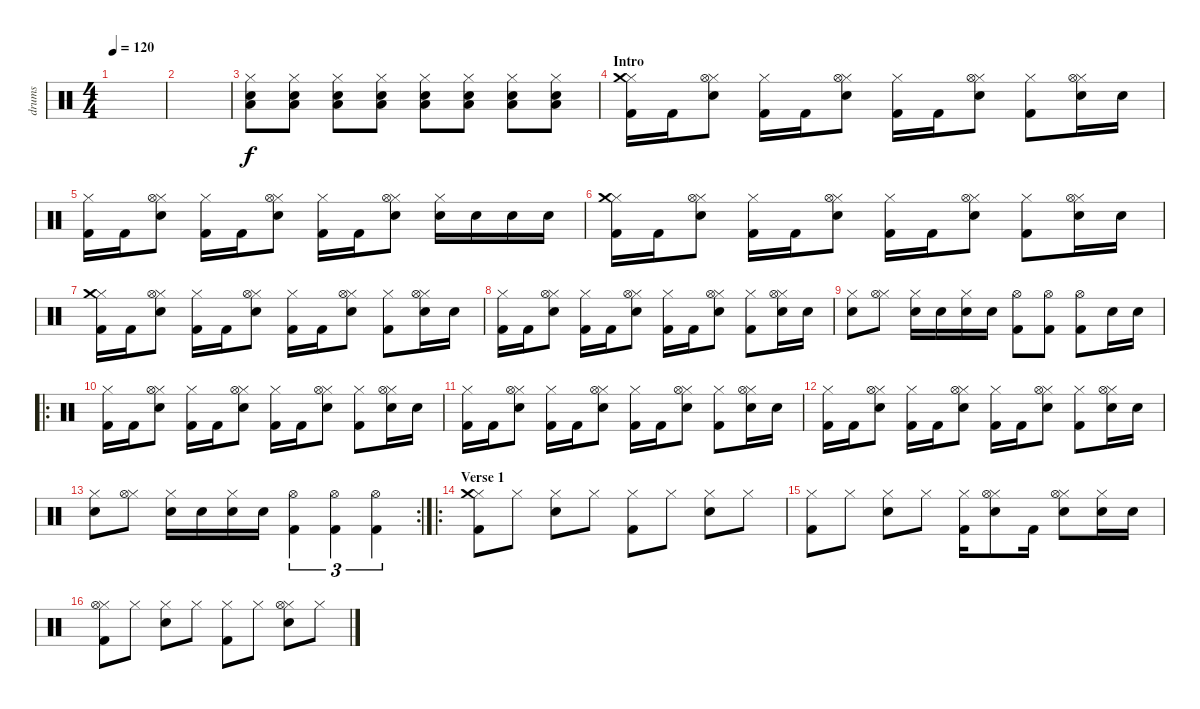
\track ("drums" "drums") {instrument percussion}
\staff {score}
\articulation defaults
\ts (4 4)
\tempo 120
\clef neutral
\ks c
|
|
("Low Floor Tom (hit)" "Electric Snare (hit)" "Hi-Hat (closed)").8{volume 13} ("Low Floor Tom (hit)" "Electric Snare (hit)" "Hi-Hat (closed)").8 ("Low Floor Tom (hit)" "Electric Snare (hit)" "Hi-Hat (closed)").8 ("Low Floor Tom (hit)" "Electric Snare (hit)" "Hi-Hat (closed)").8 ("Low Floor Tom (hit)" "Electric Snare (hit)" "Hi-Hat (closed)").8 ("Low Floor Tom (hit)" "Electric Snare (hit)" "Hi-Hat (closed)").8 ("Low Floor Tom (hit)" "Electric Snare (hit)" "Hi-Hat (closed)").8 ("Low Floor Tom (hit)" "Electric Snare (hit)" "Hi-Hat (closed)").8 |
\section ("" "Intro")
("Hi-Hat (closed)" "Kick (hit) 2" "Crash medium (hit)").16 "Kick (hit) 2".16 ("Hi-Hat (closed)" "Electric Snare (hit)" "Hi-Hat (open)").8 ("Hi-Hat (closed)" "Kick (hit) 2").16 "Kick (hit) 2".16 ("Hi-Hat (closed)" "Electric Snare (hit)" "Hi-Hat (open)").8 ("Hi-Hat (closed)" "Kick (hit) 2").16 "Kick (hit) 2".16 ("Hi-Hat (closed)" "Electric Snare (hit)" "Hi-Hat (open)").8 ("Hi-Hat (closed)" "Kick (hit) 2").8 ("Hi-Hat (closed)" "Electric Snare (hit)" "Hi-Hat (open)").16 "Electric Snare (hit)".16 |
("Hi-Hat (closed)" "Kick (hit) 2").16 "Kick (hit) 2".16 ("Hi-Hat (closed)" "Electric Snare (hit)" "Hi-Hat (open)").8 ("Hi-Hat (closed)" "Kick (hit) 2").16 "Kick (hit) 2".16 ("Hi-Hat (closed)" "Electric Snare (hit)" "Hi-Hat (open)").8 ("Hi-Hat (closed)" "Kick (hit) 2").16 "Kick (hit) 2".16 ("Hi-Hat (closed)" "Electric Snare (hit)" "Hi-Hat (open)").8 ("Hi-Hat (closed)" "Electric Snare (hit)").16 "Electric Snare (hit)".16 "Electric Snare (hit)".16 "Electric Snare (hit)".16 |
("Hi-Hat (closed)" "Kick (hit) 2" "Crash medium (hit)").16 "Kick (hit) 2".16 ("Hi-Hat (closed)" "Electric Snare (hit)" "Hi-Hat (open)").8 ("Hi-Hat (closed)" "Kick (hit) 2").16 "Kick (hit) 2".16 ("Hi-Hat (closed)" "Electric Snare (hit)" "Hi-Hat (open)").8 ("Hi-Hat (closed)" "Kick (hit) 2").16 "Kick (hit) 2".16 ("Hi-Hat (closed)" "Electric Snare (hit)" "Hi-Hat (open)").8 ("Hi-Hat (closed)" "Kick (hit) 2").8 ("Hi-Hat (closed)" "Electric Snare (hit)" "Hi-Hat (open)").16 "Electric Snare (hit)".16 |
("Hi-Hat (closed)" "Kick (hit) 2" "Crash medium (hit)").16 "Kick (hit) 2".16 ("Hi-Hat (closed)" "Electric Snare (hit)" "Hi-Hat (open)").8 ("Hi-Hat (closed)" "Kick (hit) 2").16 "Kick (hit) 2".16 ("Hi-Hat (closed)" "Electric Snare (hit)" "Hi-Hat (open)").8 ("Hi-Hat (closed)" "Kick (hit) 2").16 "Kick (hit) 2".16 ("Hi-Hat (closed)" "Electric Snare (hit)" "Hi-Hat (open)").8 ("Hi-Hat (closed)" "Kick (hit) 2").8 ("Hi-Hat (closed)" "Electric Snare (hit)" "Hi-Hat (open)").16 "Electric Snare (hit)".16 |
("Hi-Hat (closed)" "Kick (hit) 2").16 "Kick (hit) 2".16 ("Hi-Hat (closed)" "Electric Snare (hit)" "Hi-Hat (open)").8 ("Hi-Hat (closed)" "Kick (hit) 2").16 "Kick (hit) 2".16 ("Hi-Hat (closed)" "Electric Snare (hit)" "Hi-Hat (open)").8 ("Hi-Hat (closed)" "Kick (hit) 2").16 "Kick (hit) 2".16 ("Hi-Hat (closed)" "Electric Snare (hit)" "Hi-Hat (open)").8 ("Hi-Hat (closed)" "Kick (hit) 2").8 ("Hi-Hat (closed)" "Electric Snare (hit)" "Hi-Hat (open)").16 "Electric Snare (hit)".16 |
("Hi-Hat (closed)" "Electric Snare (hit)").8 ("Hi-Hat (closed)" "Hi-Hat (open)").8 ("Hi-Hat (closed)" "Electric Snare (hit)").16 "Electric Snare (hit)".16 ("Hi-Hat (closed)" "Electric Snare (hit)").16 "Electric Snare (hit)".16 ("Hi-Hat (open)" "Kick (hit) 2").8 ("Hi-Hat (open)" "Kick (hit) 2").8 ("Hi-Hat (open)" "Kick (hit) 2").8 "Electric Snare (hit)".16 "Electric Snare (hit)".16 |
\ro
("Hi-Hat (closed)" "Kick (hit) 2").16 "Kick (hit) 2".16 ("Hi-Hat (closed)" "Electric Snare (hit)" "Hi-Hat (open)").8 ("Hi-Hat (closed)" "Kick (hit) 2").16 "Kick (hit) 2".16 ("Hi-Hat (closed)" "Electric Snare (hit)" "Hi-Hat (open)").8 ("Hi-Hat (closed)" "Kick (hit) 2").16 "Kick (hit) 2".16 ("Hi-Hat (closed)" "Electric Snare (hit)" "Hi-Hat (open)").8 ("Hi-Hat (closed)" "Kick (hit) 2").8 ("Hi-Hat (closed)" "Electric Snare (hit)" "Hi-Hat (open)").16 "Electric Snare (hit)".16 |
("Hi-Hat (closed)" "Kick (hit) 2").16 "Kick (hit) 2".16 ("Hi-Hat (closed)" "Electric Snare (hit)" "Hi-Hat (open)").8 ("Hi-Hat (closed)" "Kick (hit) 2").16 "Kick (hit) 2".16 ("Hi-Hat (closed)" "Electric Snare (hit)" "Hi-Hat (open)").8 ("Hi-Hat (closed)" "Kick (hit) 2").16 "Kick (hit) 2".16 ("Hi-Hat (closed)" "Electric Snare (hit)" "Hi-Hat (open)").8 ("Hi-Hat (closed)" "Kick (hit) 2").8 ("Hi-Hat (closed)" "Electric Snare (hit)" "Hi-Hat (open)").16 "Electric Snare (hit)".16 |
("Hi-Hat (closed)" "Kick (hit) 2").16 "Kick (hit) 2".16 ("Hi-Hat (closed)" "Electric Snare (hit)" "Hi-Hat (open)").8 ("Hi-Hat (closed)" "Kick (hit) 2").16 "Kick (hit) 2".16 ("Hi-Hat (closed)" "Electric Snare (hit)" "Hi-Hat (open)").8 ("Hi-Hat (closed)" "Kick (hit) 2").16 "Kick (hit) 2".16 ("Hi-Hat (closed)" "Electric Snare (hit)" "Hi-Hat (open)").8 ("Hi-Hat (closed)" "Kick (hit) 2").8 ("Hi-Hat (closed)" "Electric Snare (hit)" "Hi-Hat (open)").16 "Electric Snare (hit)".16 |
\rc 2
("Hi-Hat (closed)" "Electric Snare (hit)").8 ("Hi-Hat (closed)" "Hi-Hat (open)").8 ("Hi-Hat (closed)" "Electric Snare (hit)").16 "Electric Snare (hit)".16 ("Hi-Hat (closed)" "Electric Snare (hit)").16 "Electric Snare (hit)".16 ("Hi-Hat (open)" "Kick (hit) 2").4{tu (3 2)} ("Hi-Hat (open)" "Kick (hit) 2").4{tu (3 2)} ("Hi-Hat (open)" "Kick (hit) 2").4{tu (3 2)} |
\ro
\section ("" "Verse 1")
("Hi-Hat (closed)" "Crash medium (hit)" "Kick (hit) 2").8 "Hi-Hat (closed)".8 ("Hi-Hat (closed)" "Electric Snare (hit)").8 "Hi-Hat (closed)".8 ("Hi-Hat (closed)" "Kick (hit) 2").8 "Hi-Hat (closed)".8 ("Hi-Hat (closed)" "Electric Snare (hit)").8 "Hi-Hat (closed)".8 |
("Hi-Hat (closed)" "Kick (hit) 2").8 "Hi-Hat (closed)".8 ("Hi-Hat (closed)" "Electric Snare (hit)").8 "Hi-Hat (closed)".8 ("Hi-Hat (closed)" "Kick (hit) 2").16 ("Hi-Hat (closed)" "Hi-Hat (open)" "Electric Snare (hit)").8 "Kick (hit) 2".16 ("Hi-Hat (closed)" "Hi-Hat (open)" "Electric Snare (hit)").8 ("Hi-Hat (closed)" "Electric Snare (hit)").16 "Electric Snare (hit)".16 |
("Hi-Hat (closed)" "Hi-Hat (open)" "Kick (hit) 2").8 "Hi-Hat (closed)".8 ("Hi-Hat (closed)" "Electric Snare (hit)").8 "Hi-Hat (closed)".8 ("Hi-Hat (closed)" "Kick (hit) 2").8 "Hi-Hat (closed)".8 ("Hi-Hat (closed)" "Hi-Hat (open)" "Electric Snare (hit)").8 "Hi-Hat (closed)".8
